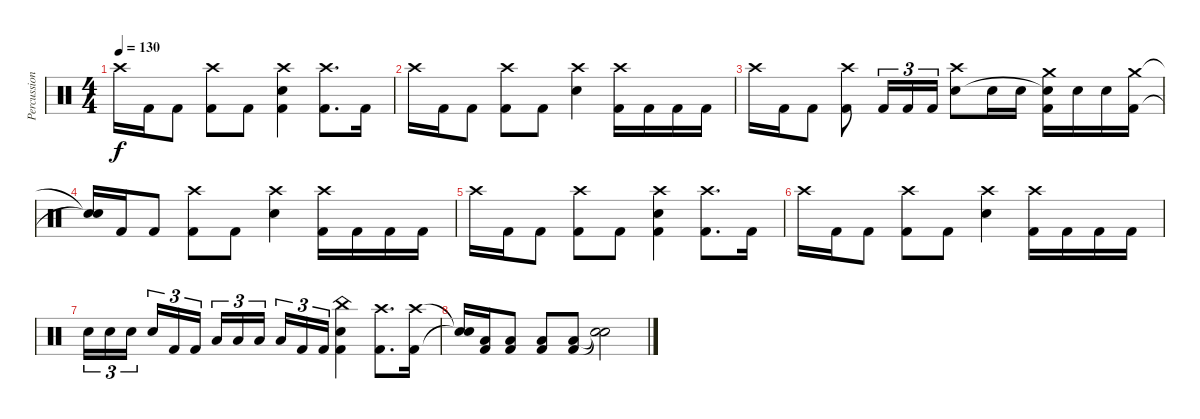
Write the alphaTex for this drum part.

\track ("Percussion" "Percussion") {instrument percussion}
\staff {score}
\articulation defaults
\ts (4 4)
\tempo 130
\clef neutral
\ks c "Crash high (hit)".16{dy f} "Kick (hit) 2".16 "Kick (hit) 2".8
("Crash high (hit)" "Kick (hit) 2").8 "Kick (hit) 2".8 ("Crash high (hit)" "Electric Snare (hit)" "Kick (hit) 2").4 ("Crash high (hit)" "Kick (hit) 2").8{d} "Kick (hit) 2".16 |
"Crash high (hit)".16 "Kick (hit) 2".16 "Kick (hit) 2".8 ("Crash high (hit)" "Kick (hit) 2").8 "Kick (hit) 2".8 ("Crash high (hit)" "Electric Snare (hit)").4 ("Crash high (hit)" "Kick (hit) 2").16 "Kick (hit) 2".16 "Kick (hit) 2".16 "Kick (hit) 2".16 |
"Crash high (hit)".16 "Kick (hit) 2".16 "Kick (hit) 2".8 ("Crash high (hit)" "Kick (hit) 2").8 "Kick (hit) 2".16{tu (3 2)} "Kick (hit) 2".16{tu (3 2)} "Kick (hit) 2".16{tu (3 2)} ("Crash high (hit)" "Electric Snare (hit)").8 "Electric Snare (hit)".16 "Electric Snare (hit)".16 ("Crash medium (hit)" "Snare (hit)"{t} "Kick (hit) 2").16 "Electric Snare (hit)".16 "Electric Snare (hit)".16 ("Crash medium (hit)" "Kick (hit) 2").16 |
("Snare (hit)"{t} "Snare (hit)"{t}).16 "Kick (hit) 2".16 "Kick (hit) 2".8 ("Crash high (hit)" "Kick (hit) 2").8 "Kick (hit) 2".8 ("Crash high (hit)" "Electric Snare (hit)").4 ("Crash high (hit)" "Kick (hit) 2").16 "Kick (hit) 2".16 "Kick (hit) 2".16 "Kick (hit) 2".16 |
"Crash high (hit)".16 "Kick (hit) 2".16 "Kick (hit) 2".8 ("Crash high (hit)" "Kick (hit) 2").8 "Kick (hit) 2".8 ("Crash high (hit)" "Electric Snare (hit)" "Kick (hit) 2").4 ("Crash high (hit)" "Kick (hit) 2").8{d} "Kick (hit) 2".16 |
"Crash high (hit)".16 "Kick (hit) 2".16 "Kick (hit) 2".8 ("Crash high (hit)" "Kick (hit) 2").8 "Kick (hit) 2".8 ("Crash high (hit)" "Electric Snare (hit)").4 ("Crash high (hit)" "Kick (hit) 2").16 "Kick (hit) 2".16 "Kick (hit) 2".16 "Kick (hit) 2".16 |
"Electric Snare (hit)".16{tu (3 2)} "Electric Snare (hit)".16{tu (3 2)} "Electric Snare (hit)".16{tu (3 2) beam splitsecondary} "Electric Snare (hit)".16{tu (3 2)} "Kick (hit) 2".16{tu (3 2)} "Kick (hit) 2".16{tu (3 2)} "Low Tom (hit)".16{tu (3 2)} "Low Tom (hit)".16{tu (3 2)} "Low Tom (hit)".16{tu (3 2) beam splitsecondary} "Low Tom (hit)".16{tu (3 2)} "Kick (hit) 2".16{tu (3 2)} "Kick (hit) 2".16{tu (3 2)} ("China (hit)" "Electric Snare (hit)" "Kick (hit) 2").4 ("Crash high (hit)" "Kick (hit) 2").8{d} ("Crash high (hit)" "Kick (hit) 2").16 |
("Snare (hit)"{t} "Snare (hit)"{t}).16 ("Low Floor Tom (hit)" "Kick (hit) 2").16 ("Low Floor Tom (hit)" "Kick (hit) 2").8 ("Low Floor Tom (hit)" "Kick (hit) 2").8 ("Low Floor Tom (hit)" "Kick (hit) 2").8 ("Snare (hit)"{t} "Snare (hit)"{t}).2
